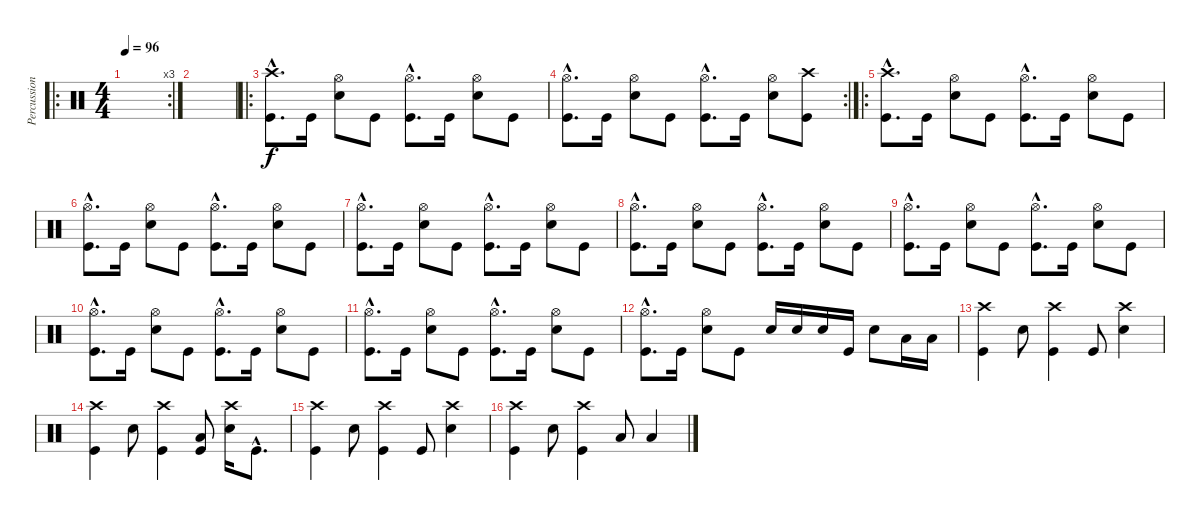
\track ("Percussion" "Percussion") {instrument percussion}
\staff {score}
\articulation defaults
\ro
\rc 3
\ts (4 4)
\tempo 96
\clef neutral
\ks c
|
|
\ro
("Crash high (hit)"{hac} "Kick (hit)"{hac}).8{d} "Kick (hit)".16 ("Hi-Hat (open)" "Electric Snare (hit)").8 "Kick (hit)".8 ("Hi-Hat (open)"{hac} "Kick (hit)"{hac}).8{d} "Kick (hit)".16 ("Hi-Hat (open)" "Electric Snare (hit)").8 "Kick (hit)".8 |
\rc 2
("Hi-Hat (open)"{hac} "Kick (hit)"{hac}).8{d} "Kick (hit)".16 ("Hi-Hat (open)" "Electric Snare (hit)").8 "Kick (hit)".8 ("Hi-Hat (open)"{hac} "Kick (hit)"{hac}).8{d} "Kick (hit)".16 ("Hi-Hat (open)" "Electric Snare (hit)").8 ("Crash high (hit)" "Kick (hit)").8 |
\ro
("Crash high (hit)"{hac} "Kick (hit)"{hac}).8{d} "Kick (hit)".16 ("Hi-Hat (open)" "Electric Snare (hit)").8 "Kick (hit)".8 ("Hi-Hat (open)"{hac} "Kick (hit)"{hac}).8{d} "Kick (hit)".16 ("Hi-Hat (open)" "Electric Snare (hit)").8 "Kick (hit)".8 |
("Hi-Hat (open)"{hac} "Kick (hit)"{hac}).8{d} "Kick (hit)".16 ("Hi-Hat (open)" "Electric Snare (hit)").8 "Kick (hit)".8 ("Hi-Hat (open)"{hac} "Kick (hit)"{hac}).8{d} "Kick (hit)".16 ("Hi-Hat (open)" "Electric Snare (hit)").8 "Kick (hit)".8 |
("Hi-Hat (open)"{hac} "Kick (hit)"{hac}).8{d} "Kick (hit)".16 ("Hi-Hat (open)" "Electric Snare (hit)").8 "Kick (hit)".8 ("Hi-Hat (open)"{hac} "Kick (hit)"{hac}).8{d} "Kick (hit)".16 ("Hi-Hat (open)" "Electric Snare (hit)").8 "Kick (hit)".8 |
("Hi-Hat (open)"{hac} "Kick (hit)"{hac}).8{d} "Kick (hit)".16 ("Hi-Hat (open)" "Electric Snare (hit)").8 "Kick (hit)".8 ("Hi-Hat (open)"{hac} "Kick (hit)"{hac}).8{d} "Kick (hit)".16 ("Hi-Hat (open)" "Electric Snare (hit)").8 "Kick (hit)".8 |
("Hi-Hat (open)"{hac} "Kick (hit)"{hac}).8{d} "Kick (hit)".16 ("Hi-Hat (open)" "Electric Snare (hit)").8 "Kick (hit)".8 ("Hi-Hat (open)"{hac} "Kick (hit)"{hac}).8{d} "Kick (hit)".16 ("Hi-Hat (open)" "Electric Snare (hit)").8 "Kick (hit)".8 |
("Hi-Hat (open)"{hac} "Kick (hit)"{hac}).8{d} "Kick (hit)".16 ("Hi-Hat (open)" "Electric Snare (hit)").8 "Kick (hit)".8 ("Hi-Hat (open)"{hac} "Kick (hit)"{hac}).8{d} "Kick (hit)".16 ("Hi-Hat (open)" "Electric Snare (hit)").8 "Kick (hit)".8 |
("Hi-Hat (open)"{hac} "Kick (hit)"{hac}).8{d} "Kick (hit)".16 ("Hi-Hat (open)" "Electric Snare (hit)").8 "Kick (hit)".8 ("Hi-Hat (open)"{hac} "Kick (hit)"{hac}).8{d} "Kick (hit)".16 ("Hi-Hat (open)" "Electric Snare (hit)").8 "Kick (hit)".8 |
("Hi-Hat (open)"{hac} "Kick (hit)"{hac}).8{d} "Kick (hit)".16 ("Hi-Hat (open)" "Electric Snare (hit)").8 "Kick (hit)".8 "Electric Snare (hit)".16 "Electric Snare (hit)".16 "Electric Snare (hit)".16 "Kick (hit)".16 "Electric Snare (hit)".8 "Low Tom (hit)".16 "Low Tom (hit)".16 |
("Crash high (hit)" "Kick (hit)").4 "Electric Snare (hit)".8 ("Crash high (hit)" "Kick (hit)").4 "Kick (hit)".8 ("Crash high (hit)" "Electric Snare (hit)").4 |
("Crash high (hit)" "Kick (hit)").4 "Electric Snare (hit)".8 ("Crash high (hit)" "Kick (hit)").4 ("Low Tom (hit)" "Kick (hit)").8 ("Crash high (hit)" "Electric Snare (hit)").16 "Kick (hit)"{hac}.8{d} |
("Crash high (hit)" "Kick (hit)").4 "Electric Snare (hit)".8 ("Crash high (hit)" "Kick (hit)").4 "Kick (hit)".8 ("Crash high (hit)" "Electric Snare (hit)").4 |
("Crash high (hit)" "Kick (hit)").4 "Electric Snare (hit)".8 ("Crash high (hit)" "Kick (hit)").4 "Low Tom (hit)".8 "Low Tom (hit)".4
